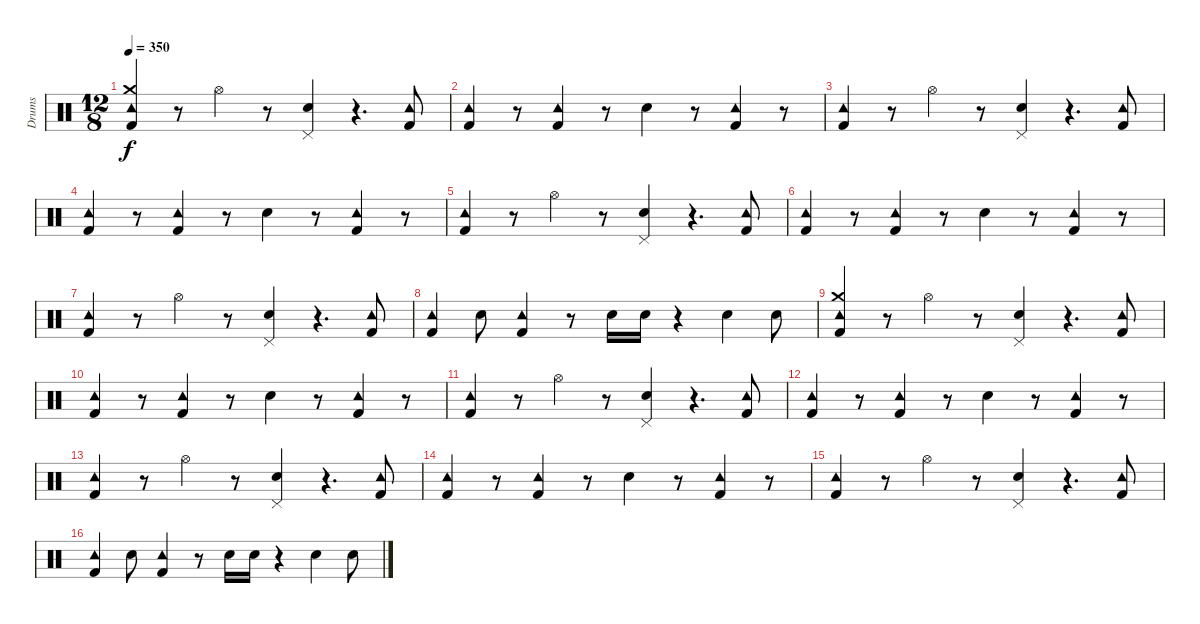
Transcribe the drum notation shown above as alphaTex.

\track ("Drums" "Drums") {instrument percussion}
\staff {score}
\articulation defaults
\ts (12 8)
\tempo 350
\clef neutral
\ks c
("Kick (hit) 2" "Crash medium (hit)" "Tambourine (hit)").4{dy f} r.8 "Hi-Hat (open)".4 r.8 ("Snare (hit) 2" "Pedal Hi-Hat (hit)").4 r.4{d} ("Kick (hit) 2" "Tambourine (hit)").8 |
("Kick (hit) 2" "Tambourine (hit)").4 r.8 ("Kick (hit) 2" "Tambourine (hit)").4 r.8 "Snare (hit) 2".4 r.8 ("Kick (hit) 2" "Tambourine (hit)").4 r.8 |
("Kick (hit) 2" "Tambourine (hit)").4 r.8 "Hi-Hat (open)".4 r.8 ("Snare (hit) 2" "Pedal Hi-Hat (hit)").4 r.4{d} ("Kick (hit) 2" "Tambourine (hit)").8 |
("Kick (hit) 2" "Tambourine (hit)").4 r.8 ("Kick (hit) 2" "Tambourine (hit)").4 r.8 "Snare (hit) 2".4 r.8 ("Kick (hit) 2" "Tambourine (hit)").4 r.8 |
("Kick (hit) 2" "Tambourine (hit)").4 r.8 "Hi-Hat (open)".4 r.8 ("Snare (hit) 2" "Pedal Hi-Hat (hit)").4 r.4{d} ("Kick (hit) 2" "Tambourine (hit)").8 |
("Kick (hit) 2" "Tambourine (hit)").4 r.8 ("Kick (hit) 2" "Tambourine (hit)").4 r.8 "Snare (hit) 2".4 r.8 ("Kick (hit) 2" "Tambourine (hit)").4 r.8 |
("Kick (hit) 2" "Tambourine (hit)").4 r.8 "Hi-Hat (open)".4 r.8 ("Snare (hit) 2" "Pedal Hi-Hat (hit)").4 r.4{d} ("Kick (hit) 2" "Tambourine (hit)").8 |
("Kick (hit) 2" "Tambourine (hit)").4 "Snare (hit) 2".8 ("Kick (hit) 2" "Tambourine (hit)").4 r.8 "Snare (hit) 2".16 "Snare (hit) 2".16 r.4 "Snare (hit) 2".4 "Snare (hit) 2".8 |
("Kick (hit) 2" "Crash medium (hit)" "Tambourine (hit)").4 r.8 "Hi-Hat (open)".4 r.8 ("Snare (hit) 2" "Pedal Hi-Hat (hit)").4 r.4{d} ("Kick (hit) 2" "Tambourine (hit)").8 |
("Kick (hit) 2" "Tambourine (hit)").4 r.8 ("Kick (hit) 2" "Tambourine (hit)").4 r.8 "Snare (hit) 2".4 r.8 ("Kick (hit) 2" "Tambourine (hit)").4 r.8 |
("Kick (hit) 2" "Tambourine (hit)").4 r.8 "Hi-Hat (open)".4 r.8 ("Snare (hit) 2" "Pedal Hi-Hat (hit)").4 r.4{d} ("Kick (hit) 2" "Tambourine (hit)").8 |
("Kick (hit) 2" "Tambourine (hit)").4 r.8 ("Kick (hit) 2" "Tambourine (hit)").4 r.8 "Snare (hit) 2".4 r.8 ("Kick (hit) 2" "Tambourine (hit)").4 r.8 |
("Kick (hit) 2" "Tambourine (hit)").4 r.8 "Hi-Hat (open)".4 r.8 ("Snare (hit) 2" "Pedal Hi-Hat (hit)").4 r.4{d} ("Kick (hit) 2" "Tambourine (hit)").8 |
("Kick (hit) 2" "Tambourine (hit)").4 r.8 ("Kick (hit) 2" "Tambourine (hit)").4 r.8 "Snare (hit) 2".4 r.8 ("Kick (hit) 2" "Tambourine (hit)").4 r.8 |
("Kick (hit) 2" "Tambourine (hit)").4 r.8 "Hi-Hat (open)".4 r.8 ("Snare (hit) 2" "Pedal Hi-Hat (hit)").4 r.4{d} ("Kick (hit) 2" "Tambourine (hit)").8 |
("Kick (hit) 2" "Tambourine (hit)").4 "Snare (hit) 2".8 ("Kick (hit) 2" "Tambourine (hit)").4 r.8 "Snare (hit) 2".16 "Snare (hit) 2".16 r.4 "Snare (hit) 2".4 "Snare (hit) 2".8
